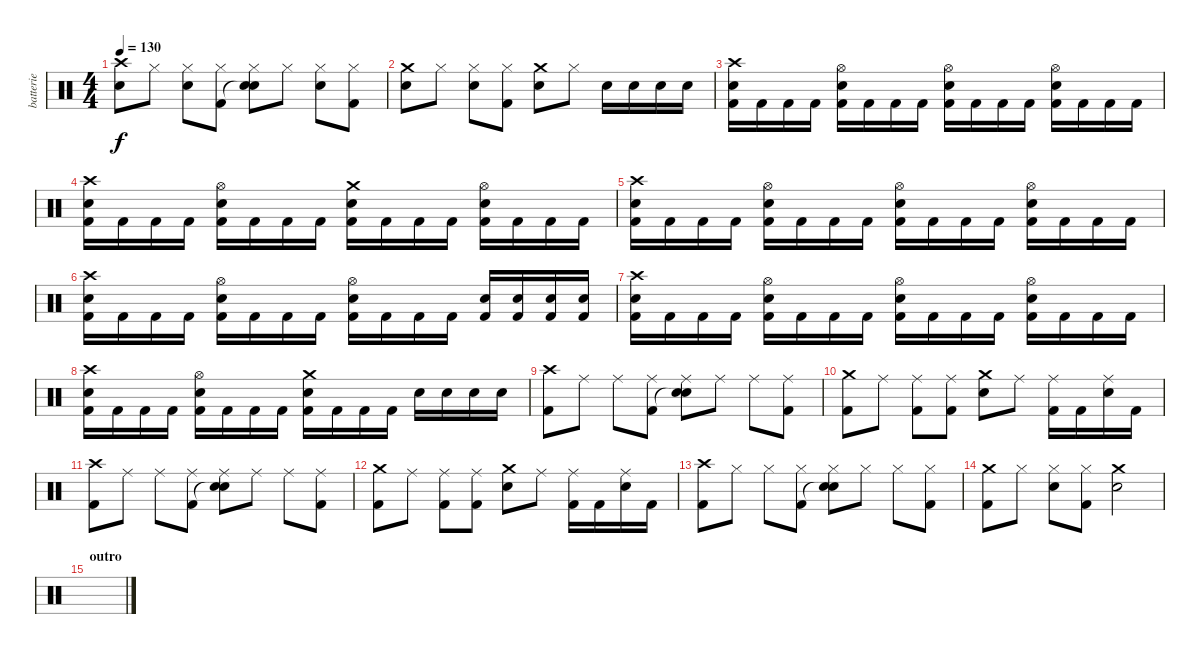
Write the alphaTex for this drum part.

\track ("batterie" "batterie") {instrument percussion}
\staff {score}
\articulation defaults
\ts (4 4)
\tempo 130
\clef neutral
\ks c
("Crash high (hit)" "Snare (hit) 2").8{dy f} "Hi-Hat (closed)".8 ("Snare (hit) 2" "Hi-Hat (closed)").8 ("Kick (hit) 2" "Hi-Hat (closed)").8 ("Snare (hit)"{t} "Snare (hit) 2" "Hi-Hat (closed)").8 "Hi-Hat (closed)".8 ("Snare (hit) 2" "Hi-Hat (closed)").8 ("Kick (hit) 2" "Hi-Hat (closed)").8 |
("Crash medium (hit)" "Snare (hit) 2").8 "Hi-Hat (closed)".8 ("Snare (hit) 2" "Hi-Hat (closed)").8 ("Kick (hit) 2" "Hi-Hat (closed)").8 ("Crash medium (hit)" "Snare (hit) 2").8 "Hi-Hat (closed)".8 "Snare (hit) 2".16 "Snare (hit) 2".16 "Snare (hit) 2".16 "Snare (hit) 2".16 |
("Crash high (hit)" "Snare (hit) 2" "Kick (hit) 2").16 "Kick (hit) 2".16 "Kick (hit) 2".16 "Kick (hit) 2".16 ("Snare (hit) 2" "Kick (hit) 2" "Hi-Hat (open)").16 "Kick (hit) 2".16 "Kick (hit) 2".16 "Kick (hit) 2".16 ("Snare (hit) 2" "Kick (hit) 2" "Hi-Hat (open)").16 "Kick (hit) 2".16 "Kick (hit) 2".16 "Kick (hit) 2".16 ("Snare (hit) 2" "Kick (hit) 2" "Hi-Hat (open)").16 "Kick (hit) 2".16 "Kick (hit) 2".16 "Kick (hit) 2".16 |
("Crash high (hit)" "Snare (hit) 2" "Kick (hit) 2").16 "Kick (hit) 2".16 "Kick (hit) 2".16 "Kick (hit) 2".16 ("Snare (hit) 2" "Kick (hit) 2" "Hi-Hat (open)").16 "Kick (hit) 2".16 "Kick (hit) 2".16 "Kick (hit) 2".16 ("Crash medium (hit)" "Snare (hit) 2" "Kick (hit) 2").16 "Kick (hit) 2".16 "Kick (hit) 2".16 "Kick (hit) 2".16 ("Snare (hit) 2" "Kick (hit) 2" "Hi-Hat (open)").16 "Kick (hit) 2".16 "Kick (hit) 2".16 "Kick (hit) 2".16 |
("Crash high (hit)" "Snare (hit) 2" "Kick (hit) 2").16 "Kick (hit) 2".16 "Kick (hit) 2".16 "Kick (hit) 2".16 ("Snare (hit) 2" "Kick (hit) 2" "Hi-Hat (open)").16 "Kick (hit) 2".16 "Kick (hit) 2".16 "Kick (hit) 2".16 ("Snare (hit) 2" "Kick (hit) 2" "Hi-Hat (open)").16 "Kick (hit) 2".16 "Kick (hit) 2".16 "Kick (hit) 2".16 ("Snare (hit) 2" "Kick (hit) 2" "Hi-Hat (open)").16 "Kick (hit) 2".16 "Kick (hit) 2".16 "Kick (hit) 2".16 |
("Crash high (hit)" "Snare (hit) 2" "Kick (hit) 2").16 "Kick (hit) 2".16 "Kick (hit) 2".16 "Kick (hit) 2".16 ("Snare (hit) 2" "Kick (hit) 2" "Hi-Hat (open)").16 "Kick (hit) 2".16 "Kick (hit) 2".16 "Kick (hit) 2".16 ("Snare (hit) 2" "Kick (hit) 2" "Hi-Hat (open)").16 "Kick (hit) 2".16 "Kick (hit) 2".16 "Kick (hit) 2".16 ("Snare (hit) 2" "Kick (hit) 2").16 ("Snare (hit) 2" "Kick (hit) 2").16 ("Snare (hit) 2" "Kick (hit) 2").16 ("Snare (hit) 2" "Kick (hit) 2").16 |
("Crash high (hit)" "Snare (hit) 2" "Kick (hit) 2").16 "Kick (hit) 2".16 "Kick (hit) 2".16 "Kick (hit) 2".16 ("Snare (hit) 2" "Kick (hit) 2" "Hi-Hat (open)").16 "Kick (hit) 2".16 "Kick (hit) 2".16 "Kick (hit) 2".16 ("Snare (hit) 2" "Kick (hit) 2" "Hi-Hat (open)").16 "Kick (hit) 2".16 "Kick (hit) 2".16 "Kick (hit) 2".16 ("Snare (hit) 2" "Kick (hit) 2" "Hi-Hat (open)").16 "Kick (hit) 2".16 "Kick (hit) 2".16 "Kick (hit) 2".16 |
("Crash high (hit)" "Snare (hit) 2" "Kick (hit) 2").16 "Kick (hit) 2".16 "Kick (hit) 2".16 "Kick (hit) 2".16 ("Snare (hit) 2" "Kick (hit) 2" "Hi-Hat (open)").16 "Kick (hit) 2".16 "Kick (hit) 2".16 "Kick (hit) 2".16 ("Crash medium (hit)" "Snare (hit) 2" "Kick (hit) 2").16 "Kick (hit) 2".16 "Kick (hit) 2".16 "Kick (hit) 2".16 "Snare (hit) 2".16 "Snare (hit) 2".16 "Snare (hit) 2".16 "Snare (hit) 2".16 |
("Crash high (hit)" "Kick (hit) 2").8 "Ride (middle)".8 "Ride (middle)".8 ("Kick (hit) 2" "Ride (middle)").8 ("Snare (hit)"{t} "Snare (hit) 2" "Ride (middle)").8 "Ride (middle)".8 "Ride (middle)".8 ("Kick (hit) 2" "Ride (middle)").8 |
("Crash medium (hit)" "Kick (hit) 2").8 "Ride (middle)".8 ("Kick (hit) 2" "Ride (middle)").8 ("Kick (hit) 2" "Ride (middle)").8 ("Crash medium (hit)" "Snare (hit) 2").8 "Ride (middle)".8 ("Kick (hit) 2" "Ride (middle)").16 "Kick (hit) 2".16 ("Snare (hit) 2" "Ride (middle)").16 "Kick (hit) 2".16 |
("Crash high (hit)" "Kick (hit) 2").8 "Ride (middle)".8 "Ride (middle)".8 ("Kick (hit) 2" "Ride (middle)").8 ("Snare (hit)"{t} "Snare (hit) 2" "Ride (middle)").8 "Ride (middle)".8 "Ride (middle)".8 ("Kick (hit) 2" "Ride (middle)").8 |
("Crash medium (hit)" "Kick (hit) 2").8 "Ride (middle)".8 ("Kick (hit) 2" "Ride (middle)").8 ("Kick (hit) 2" "Ride (middle)").8 ("Crash medium (hit)" "Snare (hit) 2").8 "Ride (middle)".8 ("Kick (hit) 2" "Ride (middle)").16 "Kick (hit) 2".16 ("Snare (hit) 2" "Ride (middle)").16 "Kick (hit) 2".16 |
("Crash high (hit)" "Kick (hit) 2").8 "Hi-Hat (closed)".8 "Hi-Hat (closed)".8 ("Kick (hit) 2" "Hi-Hat (closed)").8 ("Snare (hit)"{t} "Snare (hit) 2" "Hi-Hat (closed)").8 "Hi-Hat (closed)".8 "Hi-Hat (closed)".8 ("Kick (hit) 2" "Hi-Hat (closed)").8 |
("Crash medium (hit)" "Kick (hit) 2").8 "Hi-Hat (closed)".8 ("Snare (hit) 2" "Hi-Hat (closed)").8 ("Kick (hit) 2" "Hi-Hat (closed)").8 ("Crash medium (hit)" "Snare (hit) 2").2 |
\section ("" "outro")
